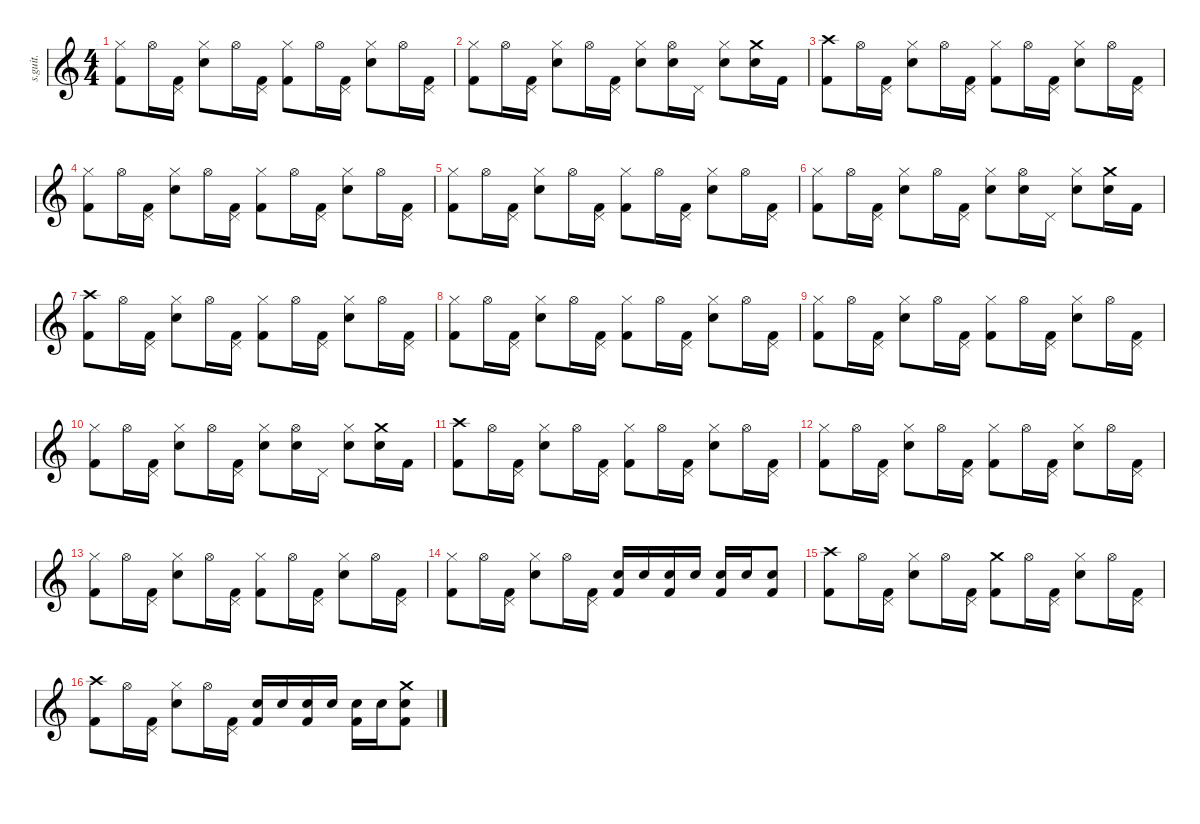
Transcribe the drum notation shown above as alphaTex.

\defaultSystemsLayout 4
\hideDynamics
\bracketExtendMode nobrackets
\track ("Bob Burns (Drums)" "s.guit.") {instrument percussion}
\staff {score}
\articulation defaults
\ts (4 4)
\tempo (60 hide)
\clef g2
\ks c
("Hi-Hat (closed)" "Kick (hit) 2").8{lyrics (0 "") lyrics (1 "") lyrics (2 "") lyrics (3 "") lyrics (4 "") dy f} "Hi-Hat (open)".16{lyrics (0 "") lyrics (1 "") lyrics (2 "") lyrics (3 "") lyrics (4 "")} ("Pedal Hi-Hat (hit)" "Kick (hit) 2").16{lyrics (0 "") lyrics (1 "") lyrics (2 "") lyrics (3 "") lyrics (4 "")} ("Hi-Hat (closed)" "Electric Snare (hit)").8{lyrics (0 "") lyrics (1 "") lyrics (2 "") lyrics (3 "") lyrics (4 "")} "Hi-Hat (open)".16{lyrics (0 "") lyrics (1 "") lyrics (2 "") lyrics (3 "") lyrics (4 "")} ("Pedal Hi-Hat (hit)" "Kick (hit) 2").16{lyrics (0 "") lyrics (1 "") lyrics (2 "") lyrics (3 "") lyrics (4 "")} ("Hi-Hat (closed)" "Kick (hit) 2").8{lyrics (0 "") lyrics (1 "") lyrics (2 "") lyrics (3 "") lyrics (4 "")} "Hi-Hat (open)".16{lyrics (0 "") lyrics (1 "") lyrics (2 "") lyrics (3 "") lyrics (4 "")} ("Pedal Hi-Hat (hit)" "Kick (hit) 2").16{lyrics (0 "") lyrics (1 "") lyrics (2 "") lyrics (3 "") lyrics (4 "")} ("Hi-Hat (closed)" "Electric Snare (hit)").8{lyrics (0 "") lyrics (1 "") lyrics (2 "") lyrics (3 "") lyrics (4 "")} "Hi-Hat (open)".16{lyrics (0 "") lyrics (1 "") lyrics (2 "") lyrics (3 "") lyrics (4 "")} ("Pedal Hi-Hat (hit)" "Kick (hit) 2").16{lyrics (0 "") lyrics (1 "") lyrics (2 "") lyrics (3 "") lyrics (4 "")} |
("Hi-Hat (closed)" "Kick (hit) 2").8{lyrics (0 "") lyrics (1 "") lyrics (2 "") lyrics (3 "") lyrics (4 "")} "Hi-Hat (open)".16{lyrics (0 "") lyrics (1 "") lyrics (2 "") lyrics (3 "") lyrics (4 "")} ("Pedal Hi-Hat (hit)" "Kick (hit) 2").16{lyrics (0 "") lyrics (1 "") lyrics (2 "") lyrics (3 "") lyrics (4 "")} ("Hi-Hat (closed)" "Electric Snare (hit)").8{lyrics (0 "") lyrics (1 "") lyrics (2 "") lyrics (3 "") lyrics (4 "")} "Hi-Hat (open)".16{lyrics (0 "") lyrics (1 "") lyrics (2 "") lyrics (3 "") lyrics (4 "")} ("Pedal Hi-Hat (hit)" "Kick (hit) 2").16{lyrics (0 "") lyrics (1 "") lyrics (2 "") lyrics (3 "") lyrics (4 "")} ("Hi-Hat (closed)" "Electric Snare (hit)").8{lyrics (0 "") lyrics (1 "") lyrics (2 "") lyrics (3 "") lyrics (4 "")} ("Hi-Hat (open)" "Electric Snare (hit)").16{lyrics (0 "") lyrics (1 "") lyrics (2 "") lyrics (3 "") lyrics (4 "")} "Pedal Hi-Hat (hit)".16{lyrics (0 "") lyrics (1 "") lyrics (2 "") lyrics (3 "") lyrics (4 "")} ("Hi-Hat (closed)" "Electric Snare (hit)").8{lyrics (0 "") lyrics (1 "") lyrics (2 "") lyrics (3 "") lyrics (4 "")} ("Crash medium (hit)" "Electric Snare (hit)").16{lyrics (0 "") lyrics (1 "") lyrics (2 "") lyrics (3 "") lyrics (4 "")} "Kick (hit) 2".16{lyrics (0 "") lyrics (1 "") lyrics (2 "") lyrics (3 "") lyrics (4 "")} |
("Crash high (hit)" "Kick (hit) 2").8{lyrics (0 "") lyrics (1 "") lyrics (2 "") lyrics (3 "") lyrics (4 "")} "Hi-Hat (open)".16{lyrics (0 "") lyrics (1 "") lyrics (2 "") lyrics (3 "") lyrics (4 "")} ("Pedal Hi-Hat (hit)" "Kick (hit) 2").16{lyrics (0 "") lyrics (1 "") lyrics (2 "") lyrics (3 "") lyrics (4 "")} ("Hi-Hat (closed)" "Electric Snare (hit)").8{lyrics (0 "") lyrics (1 "") lyrics (2 "") lyrics (3 "") lyrics (4 "")} "Hi-Hat (open)".16{lyrics (0 "") lyrics (1 "") lyrics (2 "") lyrics (3 "") lyrics (4 "")} ("Pedal Hi-Hat (hit)" "Kick (hit) 2").16{lyrics (0 "") lyrics (1 "") lyrics (2 "") lyrics (3 "") lyrics (4 "")} ("Hi-Hat (closed)" "Kick (hit) 2").8{lyrics (0 "") lyrics (1 "") lyrics (2 "") lyrics (3 "") lyrics (4 "")} "Hi-Hat (open)".16{lyrics (0 "") lyrics (1 "") lyrics (2 "") lyrics (3 "") lyrics (4 "")} ("Pedal Hi-Hat (hit)" "Kick (hit) 2").16{lyrics (0 "") lyrics (1 "") lyrics (2 "") lyrics (3 "") lyrics (4 "")} ("Hi-Hat (closed)" "Electric Snare (hit)").8{lyrics (0 "") lyrics (1 "") lyrics (2 "") lyrics (3 "") lyrics (4 "")} "Hi-Hat (open)".16{lyrics (0 "") lyrics (1 "") lyrics (2 "") lyrics (3 "") lyrics (4 "")} ("Pedal Hi-Hat (hit)" "Kick (hit) 2").16{lyrics (0 "") lyrics (1 "") lyrics (2 "") lyrics (3 "") lyrics (4 "")} |
("Hi-Hat (closed)" "Kick (hit) 2").8{lyrics (0 "") lyrics (1 "") lyrics (2 "") lyrics (3 "") lyrics (4 "")} "Hi-Hat (open)".16{lyrics (0 "") lyrics (1 "") lyrics (2 "") lyrics (3 "") lyrics (4 "")} ("Pedal Hi-Hat (hit)" "Kick (hit) 2").16{lyrics (0 "") lyrics (1 "") lyrics (2 "") lyrics (3 "") lyrics (4 "")} ("Hi-Hat (closed)" "Electric Snare (hit)").8{lyrics (0 "") lyrics (1 "") lyrics (2 "") lyrics (3 "") lyrics (4 "")} "Hi-Hat (open)".16{lyrics (0 "") lyrics (1 "") lyrics (2 "") lyrics (3 "") lyrics (4 "")} ("Pedal Hi-Hat (hit)" "Kick (hit) 2").16{lyrics (0 "") lyrics (1 "") lyrics (2 "") lyrics (3 "") lyrics (4 "")} ("Hi-Hat (closed)" "Kick (hit) 2").8{lyrics (0 "") lyrics (1 "") lyrics (2 "") lyrics (3 "") lyrics (4 "")} "Hi-Hat (open)".16{lyrics (0 "") lyrics (1 "") lyrics (2 "") lyrics (3 "") lyrics (4 "")} ("Pedal Hi-Hat (hit)" "Kick (hit) 2").16{lyrics (0 "") lyrics (1 "") lyrics (2 "") lyrics (3 "") lyrics (4 "")} ("Hi-Hat (closed)" "Electric Snare (hit)").8{lyrics (0 "") lyrics (1 "") lyrics (2 "") lyrics (3 "") lyrics (4 "")} "Hi-Hat (open)".16{lyrics (0 "") lyrics (1 "") lyrics (2 "") lyrics (3 "") lyrics (4 "")} ("Pedal Hi-Hat (hit)" "Kick (hit) 2").16{lyrics (0 "") lyrics (1 "") lyrics (2 "") lyrics (3 "") lyrics (4 "")} |
("Hi-Hat (closed)" "Kick (hit) 2").8{lyrics (0 "") lyrics (1 "") lyrics (2 "") lyrics (3 "") lyrics (4 "")} "Hi-Hat (open)".16{lyrics (0 "") lyrics (1 "") lyrics (2 "") lyrics (3 "") lyrics (4 "")} ("Pedal Hi-Hat (hit)" "Kick (hit) 2").16{lyrics (0 "") lyrics (1 "") lyrics (2 "") lyrics (3 "") lyrics (4 "")} ("Hi-Hat (closed)" "Electric Snare (hit)").8{lyrics (0 "") lyrics (1 "") lyrics (2 "") lyrics (3 "") lyrics (4 "")} "Hi-Hat (open)".16{lyrics (0 "") lyrics (1 "") lyrics (2 "") lyrics (3 "") lyrics (4 "")} ("Pedal Hi-Hat (hit)" "Kick (hit) 2").16{lyrics (0 "") lyrics (1 "") lyrics (2 "") lyrics (3 "") lyrics (4 "")} ("Hi-Hat (closed)" "Kick (hit) 2").8{lyrics (0 "") lyrics (1 "") lyrics (2 "") lyrics (3 "") lyrics (4 "")} "Hi-Hat (open)".16{lyrics (0 "") lyrics (1 "") lyrics (2 "") lyrics (3 "") lyrics (4 "")} ("Pedal Hi-Hat (hit)" "Kick (hit) 2").16{lyrics (0 "") lyrics (1 "") lyrics (2 "") lyrics (3 "") lyrics (4 "")} ("Hi-Hat (closed)" "Electric Snare (hit)").8{lyrics (0 "") lyrics (1 "") lyrics (2 "") lyrics (3 "") lyrics (4 "")} "Hi-Hat (open)".16{lyrics (0 "") lyrics (1 "") lyrics (2 "") lyrics (3 "") lyrics (4 "")} ("Pedal Hi-Hat (hit)" "Kick (hit) 2").16{lyrics (0 "") lyrics (1 "") lyrics (2 "") lyrics (3 "") lyrics (4 "")} |
("Hi-Hat (closed)" "Kick (hit) 2").8{lyrics (0 "") lyrics (1 "") lyrics (2 "") lyrics (3 "") lyrics (4 "")} "Hi-Hat (open)".16{lyrics (0 "") lyrics (1 "") lyrics (2 "") lyrics (3 "") lyrics (4 "")} ("Pedal Hi-Hat (hit)" "Kick (hit) 2").16{lyrics (0 "") lyrics (1 "") lyrics (2 "") lyrics (3 "") lyrics (4 "")} ("Hi-Hat (closed)" "Electric Snare (hit)").8{lyrics (0 "") lyrics (1 "") lyrics (2 "") lyrics (3 "") lyrics (4 "")} "Hi-Hat (open)".16{lyrics (0 "") lyrics (1 "") lyrics (2 "") lyrics (3 "") lyrics (4 "")} ("Pedal Hi-Hat (hit)" "Kick (hit) 2").16{lyrics (0 "") lyrics (1 "") lyrics (2 "") lyrics (3 "") lyrics (4 "")} ("Hi-Hat (closed)" "Electric Snare (hit)").8{lyrics (0 "") lyrics (1 "") lyrics (2 "") lyrics (3 "") lyrics (4 "")} ("Hi-Hat (open)" "Electric Snare (hit)").16{lyrics (0 "") lyrics (1 "") lyrics (2 "") lyrics (3 "") lyrics (4 "")} "Pedal Hi-Hat (hit)".16{lyrics (0 "") lyrics (1 "") lyrics (2 "") lyrics (3 "") lyrics (4 "")} ("Hi-Hat (closed)" "Electric Snare (hit)").8{lyrics (0 "") lyrics (1 "") lyrics (2 "") lyrics (3 "") lyrics (4 "")} ("Crash medium (hit)" "Electric Snare (hit)").16{lyrics (0 "") lyrics (1 "") lyrics (2 "") lyrics (3 "") lyrics (4 "")} "Kick (hit) 2".16{lyrics (0 "") lyrics (1 "") lyrics (2 "") lyrics (3 "") lyrics (4 "")} |
("Crash high (hit)" "Kick (hit) 2").8{lyrics (0 "") lyrics (1 "") lyrics (2 "") lyrics (3 "") lyrics (4 "")} "Hi-Hat (open)".16{lyrics (0 "") lyrics (1 "") lyrics (2 "") lyrics (3 "") lyrics (4 "")} ("Pedal Hi-Hat (hit)" "Kick (hit) 2").16{lyrics (0 "") lyrics (1 "") lyrics (2 "") lyrics (3 "") lyrics (4 "")} ("Hi-Hat (closed)" "Electric Snare (hit)").8{lyrics (0 "") lyrics (1 "") lyrics (2 "") lyrics (3 "") lyrics (4 "")} "Hi-Hat (open)".16{lyrics (0 "") lyrics (1 "") lyrics (2 "") lyrics (3 "") lyrics (4 "")} ("Pedal Hi-Hat (hit)" "Kick (hit) 2").16{lyrics (0 "") lyrics (1 "") lyrics (2 "") lyrics (3 "") lyrics (4 "")} ("Hi-Hat (closed)" "Kick (hit) 2").8{lyrics (0 "") lyrics (1 "") lyrics (2 "") lyrics (3 "") lyrics (4 "")} "Hi-Hat (open)".16{lyrics (0 "") lyrics (1 "") lyrics (2 "") lyrics (3 "") lyrics (4 "")} ("Pedal Hi-Hat (hit)" "Kick (hit) 2").16{lyrics (0 "") lyrics (1 "") lyrics (2 "") lyrics (3 "") lyrics (4 "")} ("Hi-Hat (closed)" "Electric Snare (hit)").8{lyrics (0 "") lyrics (1 "") lyrics (2 "") lyrics (3 "") lyrics (4 "")} "Hi-Hat (open)".16{lyrics (0 "") lyrics (1 "") lyrics (2 "") lyrics (3 "") lyrics (4 "")} ("Pedal Hi-Hat (hit)" "Kick (hit) 2").16{lyrics (0 "") lyrics (1 "") lyrics (2 "") lyrics (3 "") lyrics (4 "")} |
("Hi-Hat (closed)" "Kick (hit) 2").8{lyrics (0 "") lyrics (1 "") lyrics (2 "") lyrics (3 "") lyrics (4 "")} "Hi-Hat (open)".16{lyrics (0 "") lyrics (1 "") lyrics (2 "") lyrics (3 "") lyrics (4 "")} ("Pedal Hi-Hat (hit)" "Kick (hit) 2").16{lyrics (0 "") lyrics (1 "") lyrics (2 "") lyrics (3 "") lyrics (4 "")} ("Hi-Hat (closed)" "Electric Snare (hit)").8{lyrics (0 "") lyrics (1 "") lyrics (2 "") lyrics (3 "") lyrics (4 "")} "Hi-Hat (open)".16{lyrics (0 "") lyrics (1 "") lyrics (2 "") lyrics (3 "") lyrics (4 "")} ("Pedal Hi-Hat (hit)" "Kick (hit) 2").16{lyrics (0 "") lyrics (1 "") lyrics (2 "") lyrics (3 "") lyrics (4 "")} ("Hi-Hat (closed)" "Kick (hit) 2").8{lyrics (0 "") lyrics (1 "") lyrics (2 "") lyrics (3 "") lyrics (4 "")} "Hi-Hat (open)".16{lyrics (0 "") lyrics (1 "") lyrics (2 "") lyrics (3 "") lyrics (4 "")} ("Pedal Hi-Hat (hit)" "Kick (hit) 2").16{lyrics (0 "") lyrics (1 "") lyrics (2 "") lyrics (3 "") lyrics (4 "")} ("Hi-Hat (closed)" "Electric Snare (hit)").8{lyrics (0 "") lyrics (1 "") lyrics (2 "") lyrics (3 "") lyrics (4 "")} "Hi-Hat (open)".16{lyrics (0 "") lyrics (1 "") lyrics (2 "") lyrics (3 "") lyrics (4 "")} ("Pedal Hi-Hat (hit)" "Kick (hit) 2").16{lyrics (0 "") lyrics (1 "") lyrics (2 "") lyrics (3 "") lyrics (4 "")} |
("Hi-Hat (closed)" "Kick (hit) 2").8{lyrics (0 "") lyrics (1 "") lyrics (2 "") lyrics (3 "") lyrics (4 "")} "Hi-Hat (open)".16{lyrics (0 "") lyrics (1 "") lyrics (2 "") lyrics (3 "") lyrics (4 "")} ("Pedal Hi-Hat (hit)" "Kick (hit) 2").16{lyrics (0 "") lyrics (1 "") lyrics (2 "") lyrics (3 "") lyrics (4 "")} ("Hi-Hat (closed)" "Electric Snare (hit)").8{lyrics (0 "") lyrics (1 "") lyrics (2 "") lyrics (3 "") lyrics (4 "")} "Hi-Hat (open)".16{lyrics (0 "") lyrics (1 "") lyrics (2 "") lyrics (3 "") lyrics (4 "")} ("Pedal Hi-Hat (hit)" "Kick (hit) 2").16{lyrics (0 "") lyrics (1 "") lyrics (2 "") lyrics (3 "") lyrics (4 "")} ("Hi-Hat (closed)" "Kick (hit) 2").8{lyrics (0 "") lyrics (1 "") lyrics (2 "") lyrics (3 "") lyrics (4 "")} "Hi-Hat (open)".16{lyrics (0 "") lyrics (1 "") lyrics (2 "") lyrics (3 "") lyrics (4 "")} ("Pedal Hi-Hat (hit)" "Kick (hit) 2").16{lyrics (0 "") lyrics (1 "") lyrics (2 "") lyrics (3 "") lyrics (4 "")} ("Hi-Hat (closed)" "Electric Snare (hit)").8{lyrics (0 "") lyrics (1 "") lyrics (2 "") lyrics (3 "") lyrics (4 "")} "Hi-Hat (open)".16{lyrics (0 "") lyrics (1 "") lyrics (2 "") lyrics (3 "") lyrics (4 "")} ("Pedal Hi-Hat (hit)" "Kick (hit) 2").16{lyrics (0 "") lyrics (1 "") lyrics (2 "") lyrics (3 "") lyrics (4 "")} |
("Hi-Hat (closed)" "Kick (hit) 2").8{lyrics (0 "") lyrics (1 "") lyrics (2 "") lyrics (3 "") lyrics (4 "")} "Hi-Hat (open)".16{lyrics (0 "") lyrics (1 "") lyrics (2 "") lyrics (3 "") lyrics (4 "")} ("Pedal Hi-Hat (hit)" "Kick (hit) 2").16{lyrics (0 "") lyrics (1 "") lyrics (2 "") lyrics (3 "") lyrics (4 "")} ("Hi-Hat (closed)" "Electric Snare (hit)").8{lyrics (0 "") lyrics (1 "") lyrics (2 "") lyrics (3 "") lyrics (4 "")} "Hi-Hat (open)".16{lyrics (0 "") lyrics (1 "") lyrics (2 "") lyrics (3 "") lyrics (4 "")} ("Pedal Hi-Hat (hit)" "Kick (hit) 2").16{lyrics (0 "") lyrics (1 "") lyrics (2 "") lyrics (3 "") lyrics (4 "")} ("Hi-Hat (closed)" "Electric Snare (hit)").8{lyrics (0 "") lyrics (1 "") lyrics (2 "") lyrics (3 "") lyrics (4 "")} ("Hi-Hat (open)" "Electric Snare (hit)").16{lyrics (0 "") lyrics (1 "") lyrics (2 "") lyrics (3 "") lyrics (4 "")} "Pedal Hi-Hat (hit)".16{lyrics (0 "") lyrics (1 "") lyrics (2 "") lyrics (3 "") lyrics (4 "")} ("Hi-Hat (closed)" "Electric Snare (hit)").8{lyrics (0 "") lyrics (1 "") lyrics (2 "") lyrics (3 "") lyrics (4 "")} ("Crash medium (hit)" "Electric Snare (hit)").16{lyrics (0 "") lyrics (1 "") lyrics (2 "") lyrics (3 "") lyrics (4 "")} "Kick (hit) 2".16{lyrics (0 "") lyrics (1 "") lyrics (2 "") lyrics (3 "") lyrics (4 "")} |
("Crash high (hit)" "Kick (hit) 2").8{lyrics (0 "") lyrics (1 "") lyrics (2 "") lyrics (3 "") lyrics (4 "")} "Hi-Hat (open)".16{lyrics (0 "") lyrics (1 "") lyrics (2 "") lyrics (3 "") lyrics (4 "")} ("Pedal Hi-Hat (hit)" "Kick (hit) 2").16{lyrics (0 "") lyrics (1 "") lyrics (2 "") lyrics (3 "") lyrics (4 "")} ("Hi-Hat (closed)" "Electric Snare (hit)").8{lyrics (0 "") lyrics (1 "") lyrics (2 "") lyrics (3 "") lyrics (4 "")} "Hi-Hat (open)".16{lyrics (0 "") lyrics (1 "") lyrics (2 "") lyrics (3 "") lyrics (4 "")} ("Pedal Hi-Hat (hit)" "Kick (hit) 2").16{lyrics (0 "") lyrics (1 "") lyrics (2 "") lyrics (3 "") lyrics (4 "")} ("Hi-Hat (closed)" "Kick (hit) 2").8{lyrics (0 "") lyrics (1 "") lyrics (2 "") lyrics (3 "") lyrics (4 "")} "Hi-Hat (open)".16{lyrics (0 "") lyrics (1 "") lyrics (2 "") lyrics (3 "") lyrics (4 "")} ("Pedal Hi-Hat (hit)" "Kick (hit) 2").16{lyrics (0 "") lyrics (1 "") lyrics (2 "") lyrics (3 "") lyrics (4 "")} ("Hi-Hat (closed)" "Electric Snare (hit)").8{lyrics (0 "") lyrics (1 "") lyrics (2 "") lyrics (3 "") lyrics (4 "")} "Hi-Hat (open)".16{lyrics (0 "") lyrics (1 "") lyrics (2 "") lyrics (3 "") lyrics (4 "")} ("Pedal Hi-Hat (hit)" "Kick (hit) 2").16{lyrics (0 "") lyrics (1 "") lyrics (2 "") lyrics (3 "") lyrics (4 "")} |
("Hi-Hat (closed)" "Kick (hit) 2").8{lyrics (0 "") lyrics (1 "") lyrics (2 "") lyrics (3 "") lyrics (4 "")} "Hi-Hat (open)".16{lyrics (0 "") lyrics (1 "") lyrics (2 "") lyrics (3 "") lyrics (4 "")} ("Pedal Hi-Hat (hit)" "Kick (hit) 2").16{lyrics (0 "") lyrics (1 "") lyrics (2 "") lyrics (3 "") lyrics (4 "")} ("Hi-Hat (closed)" "Electric Snare (hit)").8{lyrics (0 "") lyrics (1 "") lyrics (2 "") lyrics (3 "") lyrics (4 "")} "Hi-Hat (open)".16{lyrics (0 "") lyrics (1 "") lyrics (2 "") lyrics (3 "") lyrics (4 "")} ("Pedal Hi-Hat (hit)" "Kick (hit) 2").16{lyrics (0 "") lyrics (1 "") lyrics (2 "") lyrics (3 "") lyrics (4 "")} ("Hi-Hat (closed)" "Kick (hit) 2").8{lyrics (0 "") lyrics (1 "") lyrics (2 "") lyrics (3 "") lyrics (4 "")} "Hi-Hat (open)".16{lyrics (0 "") lyrics (1 "") lyrics (2 "") lyrics (3 "") lyrics (4 "")} ("Pedal Hi-Hat (hit)" "Kick (hit) 2").16{lyrics (0 "") lyrics (1 "") lyrics (2 "") lyrics (3 "") lyrics (4 "")} ("Hi-Hat (closed)" "Electric Snare (hit)").8{lyrics (0 "") lyrics (1 "") lyrics (2 "") lyrics (3 "") lyrics (4 "")} "Hi-Hat (open)".16{lyrics (0 "") lyrics (1 "") lyrics (2 "") lyrics (3 "") lyrics (4 "")} ("Pedal Hi-Hat (hit)" "Kick (hit) 2").16{lyrics (0 "") lyrics (1 "") lyrics (2 "") lyrics (3 "") lyrics (4 "")} |
("Hi-Hat (closed)" "Kick (hit) 2").8{lyrics (0 "") lyrics (1 "") lyrics (2 "") lyrics (3 "") lyrics (4 "")} "Hi-Hat (open)".16{lyrics (0 "") lyrics (1 "") lyrics (2 "") lyrics (3 "") lyrics (4 "")} ("Pedal Hi-Hat (hit)" "Kick (hit) 2").16{lyrics (0 "") lyrics (1 "") lyrics (2 "") lyrics (3 "") lyrics (4 "")} ("Hi-Hat (closed)" "Electric Snare (hit)").8{lyrics (0 "") lyrics (1 "") lyrics (2 "") lyrics (3 "") lyrics (4 "")} "Hi-Hat (open)".16{lyrics (0 "") lyrics (1 "") lyrics (2 "") lyrics (3 "") lyrics (4 "")} ("Pedal Hi-Hat (hit)" "Kick (hit) 2").16{lyrics (0 "") lyrics (1 "") lyrics (2 "") lyrics (3 "") lyrics (4 "")} ("Hi-Hat (closed)" "Kick (hit) 2").8{lyrics (0 "") lyrics (1 "") lyrics (2 "") lyrics (3 "") lyrics (4 "")} "Hi-Hat (open)".16{lyrics (0 "") lyrics (1 "") lyrics (2 "") lyrics (3 "") lyrics (4 "")} ("Pedal Hi-Hat (hit)" "Kick (hit) 2").16{lyrics (0 "") lyrics (1 "") lyrics (2 "") lyrics (3 "") lyrics (4 "")} ("Hi-Hat (closed)" "Electric Snare (hit)").8{lyrics (0 "") lyrics (1 "") lyrics (2 "") lyrics (3 "") lyrics (4 "")} "Hi-Hat (open)".16{lyrics (0 "") lyrics (1 "") lyrics (2 "") lyrics (3 "") lyrics (4 "")} ("Pedal Hi-Hat (hit)" "Kick (hit) 2").16{lyrics (0 "") lyrics (1 "") lyrics (2 "") lyrics (3 "") lyrics (4 "")} |
("Hi-Hat (closed)" "Kick (hit) 2").8{lyrics (0 "") lyrics (1 "") lyrics (2 "") lyrics (3 "") lyrics (4 "")} "Hi-Hat (open)".16{lyrics (0 "") lyrics (1 "") lyrics (2 "") lyrics (3 "") lyrics (4 "")} ("Pedal Hi-Hat (hit)" "Kick (hit) 2").16{lyrics (0 "") lyrics (1 "") lyrics (2 "") lyrics (3 "") lyrics (4 "")} ("Hi-Hat (closed)" "Electric Snare (hit)").8{lyrics (0 "") lyrics (1 "") lyrics (2 "") lyrics (3 "") lyrics (4 "")} "Hi-Hat (open)".16{lyrics (0 "") lyrics (1 "") lyrics (2 "") lyrics (3 "") lyrics (4 "")} ("Pedal Hi-Hat (hit)" "Kick (hit) 2").16{lyrics (0 "") lyrics (1 "") lyrics (2 "") lyrics (3 "") lyrics (4 "")} ("Electric Snare (hit)" "Kick (hit) 2").16{lyrics (0 "") lyrics (1 "") lyrics (2 "") lyrics (3 "") lyrics (4 "")} "Electric Snare (hit)".16{lyrics (0 "") lyrics (1 "") lyrics (2 "") lyrics (3 "") lyrics (4 "")} ("Electric Snare (hit)" "Kick (hit) 2").16{lyrics (0 "") lyrics (1 "") lyrics (2 "") lyrics (3 "") lyrics (4 "")} "Electric Snare (hit)".16{lyrics (0 "") lyrics (1 "") lyrics (2 "") lyrics (3 "") lyrics (4 "")} ("Electric Snare (hit)" "Kick (hit) 2").16{lyrics (0 "") lyrics (1 "") lyrics (2 "") lyrics (3 "") lyrics (4 "")} "Electric Snare (hit)".16{lyrics (0 "") lyrics (1 "") lyrics (2 "") lyrics (3 "") lyrics (4 "")} ("Electric Snare (hit)" "Kick (hit) 2").8{lyrics (0 "") lyrics (1 "") lyrics (2 "") lyrics (3 "") lyrics (4 "")} |
("Crash high (hit)" "Kick (hit) 2").8{lyrics (0 "") lyrics (1 "") lyrics (2 "") lyrics (3 "") lyrics (4 "")} "Hi-Hat (open)".16{lyrics (0 "") lyrics (1 "") lyrics (2 "") lyrics (3 "") lyrics (4 "")} ("Pedal Hi-Hat (hit)" "Kick (hit) 2").16{lyrics (0 "") lyrics (1 "") lyrics (2 "") lyrics (3 "") lyrics (4 "")} ("Hi-Hat (closed)" "Electric Snare (hit)").8{lyrics (0 "") lyrics (1 "") lyrics (2 "") lyrics (3 "") lyrics (4 "")} "Hi-Hat (open)".16{lyrics (0 "") lyrics (1 "") lyrics (2 "") lyrics (3 "") lyrics (4 "")} ("Pedal Hi-Hat (hit)" "Kick (hit) 2").16{lyrics (0 "") lyrics (1 "") lyrics (2 "") lyrics (3 "") lyrics (4 "")} ("Crash medium (hit)" "Kick (hit) 2").8{lyrics (0 "") lyrics (1 "") lyrics (2 "") lyrics (3 "") lyrics (4 "")} "Hi-Hat (open)".16{lyrics (0 "") lyrics (1 "") lyrics (2 "") lyrics (3 "") lyrics (4 "")} ("Pedal Hi-Hat (hit)" "Kick (hit) 2").16{lyrics (0 "") lyrics (1 "") lyrics (2 "") lyrics (3 "") lyrics (4 "")} ("Hi-Hat (closed)" "Electric Snare (hit)").8{lyrics (0 "") lyrics (1 "") lyrics (2 "") lyrics (3 "") lyrics (4 "")} "Hi-Hat (open)".16{lyrics (0 "") lyrics (1 "") lyrics (2 "") lyrics (3 "") lyrics (4 "")} ("Pedal Hi-Hat (hit)" "Kick (hit) 2").16{lyrics (0 "") lyrics (1 "") lyrics (2 "") lyrics (3 "") lyrics (4 "")} |
("Crash high (hit)" "Kick (hit) 2").8{lyrics (0 "") lyrics (1 "") lyrics (2 "") lyrics (3 "") lyrics (4 "")} "Hi-Hat (open)".16{lyrics (0 "") lyrics (1 "") lyrics (2 "") lyrics (3 "") lyrics (4 "")} ("Pedal Hi-Hat (hit)" "Kick (hit) 2").16{lyrics (0 "") lyrics (1 "") lyrics (2 "") lyrics (3 "") lyrics (4 "")} ("Hi-Hat (closed)" "Electric Snare (hit)").8{lyrics (0 "") lyrics (1 "") lyrics (2 "") lyrics (3 "") lyrics (4 "")} "Hi-Hat (open)".16{lyrics (0 "") lyrics (1 "") lyrics (2 "") lyrics (3 "") lyrics (4 "")} ("Pedal Hi-Hat (hit)" "Kick (hit) 2").16{lyrics (0 "") lyrics (1 "") lyrics (2 "") lyrics (3 "") lyrics (4 "")} ("Electric Snare (hit)" "Kick (hit) 2").16{lyrics (0 "") lyrics (1 "") lyrics (2 "") lyrics (3 "") lyrics (4 "")} "Electric Snare (hit)".16{lyrics (0 "") lyrics (1 "") lyrics (2 "") lyrics (3 "") lyrics (4 "")} ("Electric Snare (hit)" "Kick (hit) 2").16{lyrics (0 "") lyrics (1 "") lyrics (2 "") lyrics (3 "") lyrics (4 "")} "Electric Snare (hit)".16{lyrics (0 "") lyrics (1 "") lyrics (2 "") lyrics (3 "") lyrics (4 "")} ("Electric Snare (hit)" "Kick (hit) 2").16{lyrics (0 "") lyrics (1 "") lyrics (2 "") lyrics (3 "") lyrics (4 "")} "Electric Snare (hit)".16{lyrics (0 "") lyrics (1 "") lyrics (2 "") lyrics (3 "") lyrics (4 "")} ("Crash medium (hit)" "Electric Snare (hit)" "Kick (hit) 2").8{lyrics (0 "") lyrics (1 "") lyrics (2 "") lyrics (3 "") lyrics (4 "")}
